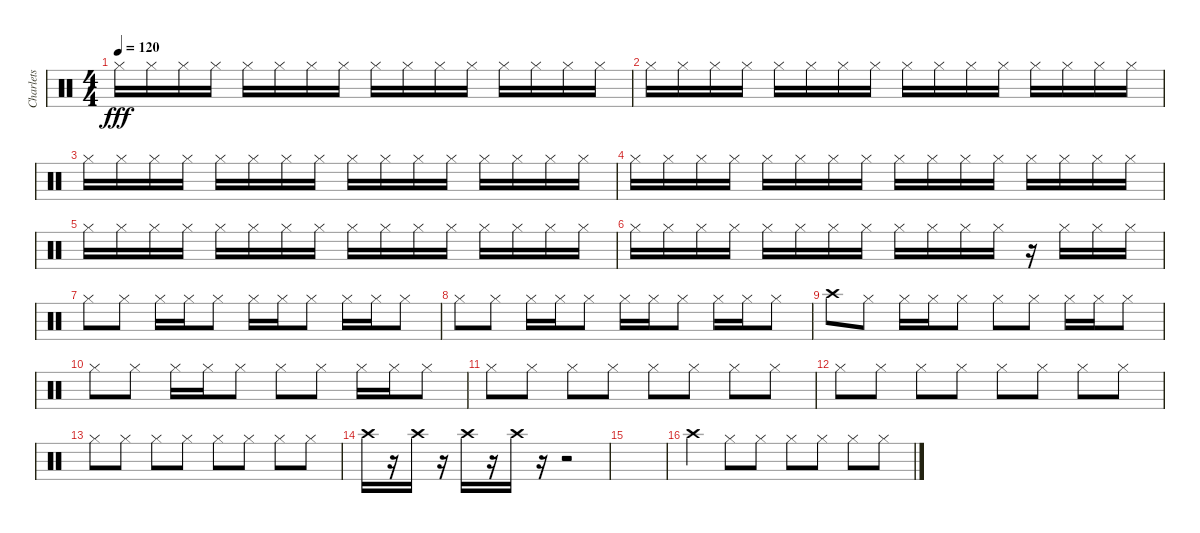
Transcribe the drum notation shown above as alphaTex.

\track ("Charlets" "Charlets") {instrument percussion}
\staff {score}
\articulation defaults
\ts (4 4)
\tempo 120
\clef neutral
\ks c "Hi-Hat (closed)".16{dy fff} "Hi-Hat (closed)".16 "Hi-Hat (closed)".16 "Hi-Hat (closed)".16 "Hi-Hat (closed)".16 "Hi-Hat (closed)".16 "Hi-Hat (closed)".16 "Hi-Hat (closed)".16 "Hi-Hat (closed)".16 "Hi-Hat (closed)".16 "Hi-Hat (closed)".16 "Hi-Hat (closed)".16 "Hi-Hat (closed)".16 "Hi-Hat (closed)".16 "Hi-Hat (closed)".16 "Hi-Hat (closed)".16
|
"Hi-Hat (closed)".16 "Hi-Hat (closed)".16 "Hi-Hat (closed)".16 "Hi-Hat (closed)".16 "Hi-Hat (closed)".16 "Hi-Hat (closed)".16 "Hi-Hat (closed)".16 "Hi-Hat (closed)".16 "Hi-Hat (closed)".16 "Hi-Hat (closed)".16 "Hi-Hat (closed)".16 "Hi-Hat (closed)".16 "Hi-Hat (closed)".16 "Hi-Hat (closed)".16 "Hi-Hat (closed)".16 "Hi-Hat (closed)".16 |
"Hi-Hat (closed)".16 "Hi-Hat (closed)".16 "Hi-Hat (closed)".16 "Hi-Hat (closed)".16 "Hi-Hat (closed)".16 "Hi-Hat (closed)".16 "Hi-Hat (closed)".16 "Hi-Hat (closed)".16 "Hi-Hat (closed)".16 "Hi-Hat (closed)".16 "Hi-Hat (closed)".16 "Hi-Hat (closed)".16 "Hi-Hat (closed)".16 "Hi-Hat (closed)".16 "Hi-Hat (closed)".16 "Hi-Hat (closed)".16 |
"Hi-Hat (closed)".16 "Hi-Hat (closed)".16 "Hi-Hat (closed)".16 "Hi-Hat (closed)".16 "Hi-Hat (closed)".16 "Hi-Hat (closed)".16 "Hi-Hat (closed)".16 "Hi-Hat (closed)".16 "Hi-Hat (closed)".16 "Hi-Hat (closed)".16 "Hi-Hat (closed)".16 "Hi-Hat (closed)".16 "Hi-Hat (closed)".16 "Hi-Hat (closed)".16 "Hi-Hat (closed)".16 "Hi-Hat (closed)".16 |
"Hi-Hat (closed)".16 "Hi-Hat (closed)".16 "Hi-Hat (closed)".16 "Hi-Hat (closed)".16 "Hi-Hat (closed)".16 "Hi-Hat (closed)".16 "Hi-Hat (closed)".16 "Hi-Hat (closed)".16 "Hi-Hat (closed)".16 "Hi-Hat (closed)".16 "Hi-Hat (closed)".16 "Hi-Hat (closed)".16 "Hi-Hat (closed)".16 "Hi-Hat (closed)".16 "Hi-Hat (closed)".16 "Hi-Hat (closed)".16 |
"Hi-Hat (closed)".16 "Hi-Hat (closed)".16 "Hi-Hat (closed)".16 "Hi-Hat (closed)".16 "Hi-Hat (closed)".16 "Hi-Hat (closed)".16 "Hi-Hat (closed)".16 "Hi-Hat (closed)".16 "Hi-Hat (closed)".16 "Hi-Hat (closed)".16 "Hi-Hat (closed)".16 "Hi-Hat (closed)".16 r.16 "Hi-Hat (closed)".16 "Hi-Hat (closed)".16 "Hi-Hat (closed)".16 |
"Hi-Hat (closed)".8 "Hi-Hat (closed)".8 "Hi-Hat (closed)".16 "Hi-Hat (closed)".16 "Hi-Hat (closed)".8 "Hi-Hat (closed)".16 "Hi-Hat (closed)".16 "Hi-Hat (closed)".8 "Hi-Hat (closed)".16 "Hi-Hat (closed)".16 "Hi-Hat (closed)".8 |
"Hi-Hat (closed)".8 "Hi-Hat (closed)".8 "Hi-Hat (closed)".16 "Hi-Hat (closed)".16 "Hi-Hat (closed)".8 "Hi-Hat (closed)".16 "Hi-Hat (closed)".16 "Hi-Hat (closed)".8 "Hi-Hat (closed)".16 "Hi-Hat (closed)".16 "Hi-Hat (closed)".8 |
"Crash high (hit)".8 "Hi-Hat (closed)".8 "Hi-Hat (closed)".16 "Hi-Hat (closed)".16 "Hi-Hat (closed)".8 "Hi-Hat (closed)".8 "Hi-Hat (closed)".8 "Hi-Hat (closed)".16 "Hi-Hat (closed)".16 "Hi-Hat (closed)".8 |
"Hi-Hat (closed)".8 "Hi-Hat (closed)".8 "Hi-Hat (closed)".16 "Hi-Hat (closed)".16 "Hi-Hat (closed)".8 "Hi-Hat (closed)".8 "Hi-Hat (closed)".8 "Hi-Hat (closed)".16 "Hi-Hat (closed)".16 "Hi-Hat (closed)".8 |
"Hi-Hat (closed)".8 "Hi-Hat (closed)".8 "Hi-Hat (closed)".8 "Hi-Hat (closed)".8 "Hi-Hat (closed)".8 "Hi-Hat (closed)".8 "Hi-Hat (closed)".8 "Hi-Hat (closed)".8 |
"Hi-Hat (closed)".8 "Hi-Hat (closed)".8 "Hi-Hat (closed)".8 "Hi-Hat (closed)".8 "Hi-Hat (closed)".8 "Hi-Hat (closed)".8 "Hi-Hat (closed)".8 "Hi-Hat (closed)".8 |
"Hi-Hat (closed)".8 "Hi-Hat (closed)".8 "Hi-Hat (closed)".8 "Hi-Hat (closed)".8 "Hi-Hat (closed)".8 "Hi-Hat (closed)".8 "Hi-Hat (closed)".8 "Hi-Hat (closed)".8 |
"Crash high (hit)".16 r.16 "Crash high (hit)".16 r.16 "Crash high (hit)".16 r.16 "Crash high (hit)".16 r.16 r.2 |
|
"Crash high (hit)".4 "Hi-Hat (closed)".8 "Hi-Hat (closed)".8 "Hi-Hat (closed)".8 "Hi-Hat (closed)".8 "Hi-Hat (closed)".8 "Hi-Hat (closed)".8
